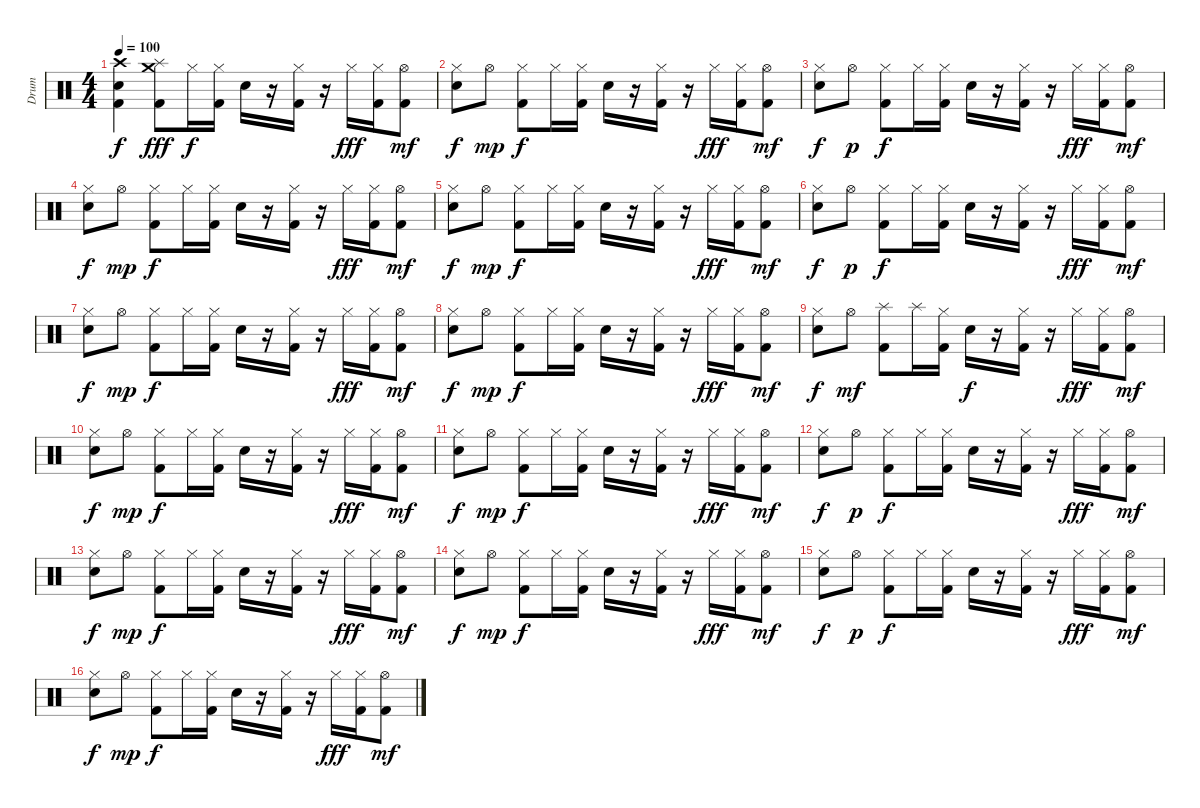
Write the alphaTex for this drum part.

\track ("Drum" "Drum") {instrument percussion}
\staff {score}
\articulation defaults
\ts (4 4)
\tempo 100
\clef neutral
\ks c
("Crash high (hit)" "Snare (hit) 2" "Kick (hit) 2").4{dy f} ("Crash medium (hit)" "Splash (hit)" "Kick (hit) 2").8{dy fff} "Hi-Hat (closed)".16{dy f} ("Hi-Hat (closed)" "Kick (hit) 2").16 "Snare (hit) 2".16 r.16 ("Hi-Hat (closed)" "Kick (hit) 2").16 r.16 "Hi-Hat (closed)".16{dy fff} ("Hi-Hat (closed)" "Kick (hit) 2").16 ("Hi-Hat (open)" "Kick (hit) 2").8{dy mf} |
("Snare (hit) 2" "Hi-Hat (closed)").8{dy f} "Hi-Hat (open)".8{dy mp} ("Hi-Hat (closed)" "Kick (hit) 2").8{dy f} "Hi-Hat (closed)".16 ("Hi-Hat (closed)" "Kick (hit) 2").16 "Snare (hit) 2".16 r.16 ("Hi-Hat (closed)" "Kick (hit) 2").16 r.16 "Hi-Hat (closed)".16{dy fff} ("Hi-Hat (closed)" "Kick (hit) 2").16 ("Hi-Hat (open)" "Kick (hit) 2").8{dy mf} |
("Snare (hit) 2" "Hi-Hat (closed)").8{dy f} "Hi-Hat (open)".8{dy p} ("Hi-Hat (closed)" "Kick (hit) 2").8{dy f} "Hi-Hat (closed)".16 ("Hi-Hat (closed)" "Kick (hit) 2").16 "Snare (hit) 2".16 r.16 ("Hi-Hat (closed)" "Kick (hit) 2").16 r.16 "Hi-Hat (closed)".16{dy fff} ("Hi-Hat (closed)" "Kick (hit) 2").16 ("Hi-Hat (open)" "Kick (hit) 2").8{dy mf} |
("Snare (hit) 2" "Hi-Hat (closed)").8{dy f} "Hi-Hat (open)".8{dy mp} ("Hi-Hat (closed)" "Kick (hit) 2").8{dy f} "Hi-Hat (closed)".16 ("Hi-Hat (closed)" "Kick (hit) 2").16 "Snare (hit) 2".16 r.16 ("Hi-Hat (closed)" "Kick (hit) 2").16 r.16 "Hi-Hat (closed)".16{dy fff} ("Hi-Hat (closed)" "Kick (hit) 2").16 ("Hi-Hat (open)" "Kick (hit) 2").8{dy mf} |
("Snare (hit) 2" "Hi-Hat (closed)").8{dy f} "Hi-Hat (open)".8{dy mp} ("Hi-Hat (closed)" "Kick (hit) 2").8{dy f} "Hi-Hat (closed)".16 ("Hi-Hat (closed)" "Kick (hit) 2").16 "Snare (hit) 2".16 r.16 ("Hi-Hat (closed)" "Kick (hit) 2").16 r.16 "Hi-Hat (closed)".16{dy fff} ("Hi-Hat (closed)" "Kick (hit) 2").16 ("Hi-Hat (open)" "Kick (hit) 2").8{dy mf} |
("Snare (hit) 2" "Hi-Hat (closed)").8{dy f} "Hi-Hat (open)".8{dy p} ("Hi-Hat (closed)" "Kick (hit) 2").8{dy f} "Hi-Hat (closed)".16 ("Hi-Hat (closed)" "Kick (hit) 2").16 "Snare (hit) 2".16 r.16 ("Hi-Hat (closed)" "Kick (hit) 2").16 r.16 "Hi-Hat (closed)".16{dy fff} ("Hi-Hat (closed)" "Kick (hit) 2").16 ("Hi-Hat (open)" "Kick (hit) 2").8{dy mf} |
("Snare (hit) 2" "Hi-Hat (closed)").8{dy f} "Hi-Hat (open)".8{dy mp} ("Hi-Hat (closed)" "Kick (hit) 2").8{dy f} "Hi-Hat (closed)".16 ("Hi-Hat (closed)" "Kick (hit) 2").16 "Snare (hit) 2".16 r.16 ("Hi-Hat (closed)" "Kick (hit) 2").16 r.16 "Hi-Hat (closed)".16{dy fff} ("Hi-Hat (closed)" "Kick (hit) 2").16 ("Hi-Hat (open)" "Kick (hit) 2").8{dy mf} |
("Snare (hit) 2" "Hi-Hat (closed)").8{dy f} "Hi-Hat (open)".8{dy mp} ("Hi-Hat (closed)" "Kick (hit) 2").8{dy f} "Hi-Hat (closed)".16 ("Hi-Hat (closed)" "Kick (hit) 2").16 "Snare (hit) 2".16 r.16 ("Hi-Hat (closed)" "Kick (hit) 2").16 r.16 "Hi-Hat (closed)".16{dy fff} ("Hi-Hat (closed)" "Kick (hit) 2").16 ("Hi-Hat (open)" "Kick (hit) 2").8{dy mf} |
("Snare (hit) 2" "Hi-Hat (closed)").8{dy f} "Hi-Hat (open)".8{dy mf} ("Splash (hit)" "Kick (hit) 2").8 "Splash (hit)".16 ("Hi-Hat (closed)" "Kick (hit) 2").16 "Snare (hit) 2".16{dy f} r.16 ("Hi-Hat (closed)" "Kick (hit) 2").16 r.16 "Hi-Hat (closed)".16{dy fff} ("Hi-Hat (closed)" "Kick (hit) 2").16 ("Hi-Hat (open)" "Kick (hit) 2").8{dy mf} |
("Snare (hit) 2" "Hi-Hat (closed)").8{dy f} "Hi-Hat (open)".8{dy mp} ("Hi-Hat (closed)" "Kick (hit) 2").8{dy f} "Hi-Hat (closed)".16 ("Hi-Hat (closed)" "Kick (hit) 2").16 "Snare (hit) 2".16 r.16 ("Hi-Hat (closed)" "Kick (hit) 2").16 r.16 "Hi-Hat (closed)".16{dy fff} ("Hi-Hat (closed)" "Kick (hit) 2").16 ("Hi-Hat (open)" "Kick (hit) 2").8{dy mf} |
("Snare (hit) 2" "Hi-Hat (closed)").8{dy f} "Hi-Hat (open)".8{dy mp} ("Hi-Hat (closed)" "Kick (hit) 2").8{dy f} "Hi-Hat (closed)".16 ("Hi-Hat (closed)" "Kick (hit) 2").16 "Snare (hit) 2".16 r.16 ("Hi-Hat (closed)" "Kick (hit) 2").16 r.16 "Hi-Hat (closed)".16{dy fff} ("Hi-Hat (closed)" "Kick (hit) 2").16 ("Hi-Hat (open)" "Kick (hit) 2").8{dy mf} |
("Snare (hit) 2" "Hi-Hat (closed)").8{dy f} "Hi-Hat (open)".8{dy p} ("Hi-Hat (closed)" "Kick (hit) 2").8{dy f} "Hi-Hat (closed)".16 ("Hi-Hat (closed)" "Kick (hit) 2").16 "Snare (hit) 2".16 r.16 ("Hi-Hat (closed)" "Kick (hit) 2").16 r.16 "Hi-Hat (closed)".16{dy fff} ("Hi-Hat (closed)" "Kick (hit) 2").16 ("Hi-Hat (open)" "Kick (hit) 2").8{dy mf} |
("Snare (hit) 2" "Hi-Hat (closed)").8{dy f} "Hi-Hat (open)".8{dy mp} ("Hi-Hat (closed)" "Kick (hit) 2").8{dy f} "Hi-Hat (closed)".16 ("Hi-Hat (closed)" "Kick (hit) 2").16 "Snare (hit) 2".16 r.16 ("Hi-Hat (closed)" "Kick (hit) 2").16 r.16 "Hi-Hat (closed)".16{dy fff} ("Hi-Hat (closed)" "Kick (hit) 2").16 ("Hi-Hat (open)" "Kick (hit) 2").8{dy mf} |
("Snare (hit) 2" "Hi-Hat (closed)").8{dy f} "Hi-Hat (open)".8{dy mp} ("Hi-Hat (closed)" "Kick (hit) 2").8{dy f} "Hi-Hat (closed)".16 ("Hi-Hat (closed)" "Kick (hit) 2").16 "Snare (hit) 2".16 r.16 ("Hi-Hat (closed)" "Kick (hit) 2").16 r.16 "Hi-Hat (closed)".16{dy fff} ("Hi-Hat (closed)" "Kick (hit) 2").16 ("Hi-Hat (open)" "Kick (hit) 2").8{dy mf} |
("Snare (hit) 2" "Hi-Hat (closed)").8{dy f} "Hi-Hat (open)".8{dy p} ("Hi-Hat (closed)" "Kick (hit) 2").8{dy f} "Hi-Hat (closed)".16 ("Hi-Hat (closed)" "Kick (hit) 2").16 "Snare (hit) 2".16 r.16 ("Hi-Hat (closed)" "Kick (hit) 2").16 r.16 "Hi-Hat (closed)".16{dy fff} ("Hi-Hat (closed)" "Kick (hit) 2").16 ("Hi-Hat (open)" "Kick (hit) 2").8{dy mf} |
("Snare (hit) 2" "Hi-Hat (closed)").8{dy f} "Hi-Hat (open)".8{dy mp} ("Hi-Hat (closed)" "Kick (hit) 2").8{dy f} "Hi-Hat (closed)".16 ("Hi-Hat (closed)" "Kick (hit) 2").16 "Snare (hit) 2".16 r.16 ("Hi-Hat (closed)" "Kick (hit) 2").16 r.16 "Hi-Hat (closed)".16{dy fff} ("Hi-Hat (closed)" "Kick (hit) 2").16 ("Hi-Hat (open)" "Kick (hit) 2").8{dy mf}
